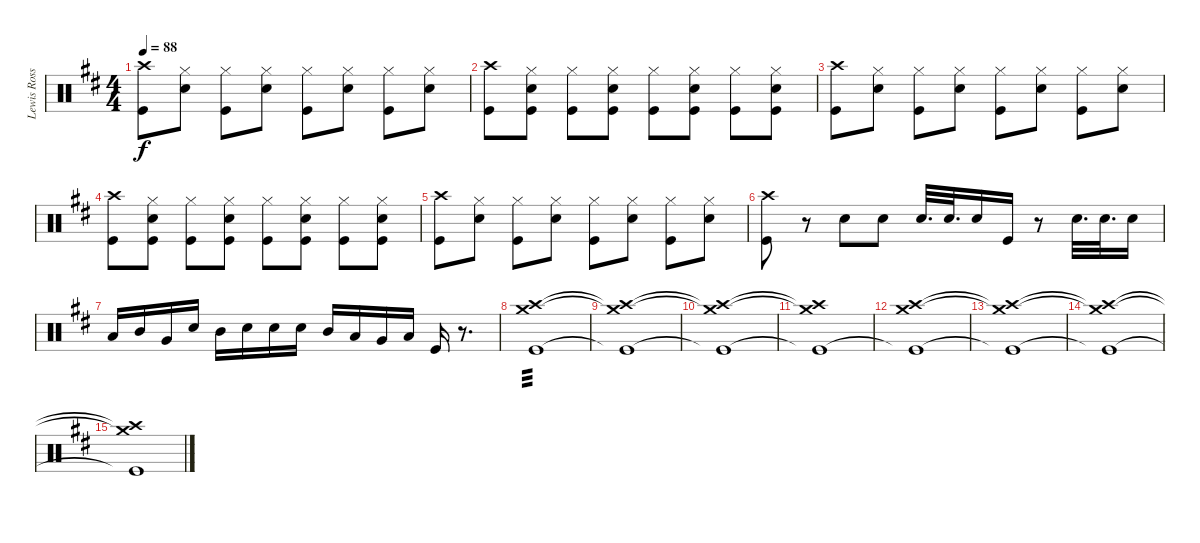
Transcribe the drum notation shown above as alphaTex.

\track ("Lewis Ross Drums" "Lewis Ross") {instrument percussion}
\staff {score}
\articulation defaults
\ts (4 4)
\tempo 88
\clef neutral
\ks d
("Crash high (hit)" "Kick (hit)").8{dy f} ("Hi-Hat (closed)" "Snare (hit) 2").8 ("Hi-Hat (closed)" "Kick (hit)").8 ("Hi-Hat (closed)" "Snare (hit) 2").8 ("Hi-Hat (closed)" "Kick (hit)").8 ("Hi-Hat (closed)" "Snare (hit) 2").8 ("Hi-Hat (closed)" "Kick (hit)").8 ("Hi-Hat (closed)" "Snare (hit) 2").8 |
("Crash high (hit)" "Kick (hit)").8 ("Hi-Hat (closed)" "Snare (hit) 2" "Kick (hit)").8 ("Hi-Hat (closed)" "Kick (hit)").8 ("Hi-Hat (closed)" "Snare (hit) 2" "Kick (hit)").8 ("Hi-Hat (closed)" "Kick (hit)").8 ("Hi-Hat (closed)" "Snare (hit) 2" "Kick (hit)").8 ("Hi-Hat (closed)" "Kick (hit)").8 ("Hi-Hat (closed)" "Snare (hit) 2" "Kick (hit)").8 |
("Crash high (hit)" "Kick (hit)").8 ("Hi-Hat (closed)" "Snare (hit) 2").8 ("Hi-Hat (closed)" "Kick (hit)").8 ("Hi-Hat (closed)" "Snare (hit) 2").8 ("Hi-Hat (closed)" "Kick (hit)").8 ("Hi-Hat (closed)" "Snare (hit) 2").8 ("Hi-Hat (closed)" "Kick (hit)").8 ("Hi-Hat (closed)" "Snare (hit) 2").8 |
("Crash high (hit)" "Kick (hit)").8 ("Hi-Hat (closed)" "Snare (hit) 2" "Kick (hit)").8 ("Hi-Hat (closed)" "Kick (hit)").8 ("Hi-Hat (closed)" "Snare (hit) 2" "Kick (hit)").8 ("Hi-Hat (closed)" "Kick (hit)").8 ("Hi-Hat (closed)" "Snare (hit) 2" "Kick (hit)").8 ("Hi-Hat (closed)" "Kick (hit)").8 ("Hi-Hat (closed)" "Snare (hit) 2" "Kick (hit)").8 |
("Crash high (hit)" "Kick (hit)").8 ("Hi-Hat (closed)" "Snare (hit) 2").8 ("Hi-Hat (closed)" "Kick (hit)").8 ("Hi-Hat (closed)" "Snare (hit) 2").8 ("Hi-Hat (closed)" "Kick (hit)").8 ("Hi-Hat (closed)" "Snare (hit) 2").8 ("Hi-Hat (closed)" "Kick (hit)").8 ("Hi-Hat (closed)" "Snare (hit) 2").8 |
("Crash high (hit)" "Kick (hit)").8 r.8 "Snare (hit) 2".8 "Snare (hit) 2".8 "Snare (hit) 2".32{d} "Snare (hit) 2".32{d} "Snare (hit) 2".16 "Kick (hit)".16 r.8 "Snare (hit) 2".32{d} "Snare (hit) 2".32{d} "Snare (hit) 2".16 |
"Low Tom (hit)".16 "Mid Tom (hit)".16 "Very Low Tom (hit)".16 "Snare (hit) 2".16 "Mid Tom (hit)".16 "Snare (hit) 2".16 "Snare (hit) 2".16 "Snare (hit) 2".16 "Mid Tom (hit)".16 "Low Tom (hit)".16 "Very Low Tom (hit)".16 "Low Floor Tom (hit)".16 "Kick (hit)".16 r.8{d} |
("Crash high (hit)" "Crash medium (hit)" "Kick (hit)").1{tp 3} |
("Crash high (hit)"{t} "Crash medium (hit)"{t} "Kick (hit)"{t}).1 |
("Crash high (hit)"{t} "Crash medium (hit)"{t} "Kick (hit)"{t}).1 |
("Crash high (hit)"{t} "Crash medium (hit)"{t} "Kick (hit)"{t}).1 |
("Crash high (hit)" "Crash medium (hit)" "Kick (hit)"{t}).1 |
("Crash high (hit)"{t} "Crash medium (hit)"{t} "Kick (hit)"{t}).1 |
("Crash high (hit)"{t} "Crash medium (hit)"{t} "Kick (hit)"{t}).1 |
("Crash high (hit)"{t} "Crash medium (hit)"{t} "Kick (hit)"{t}).1
